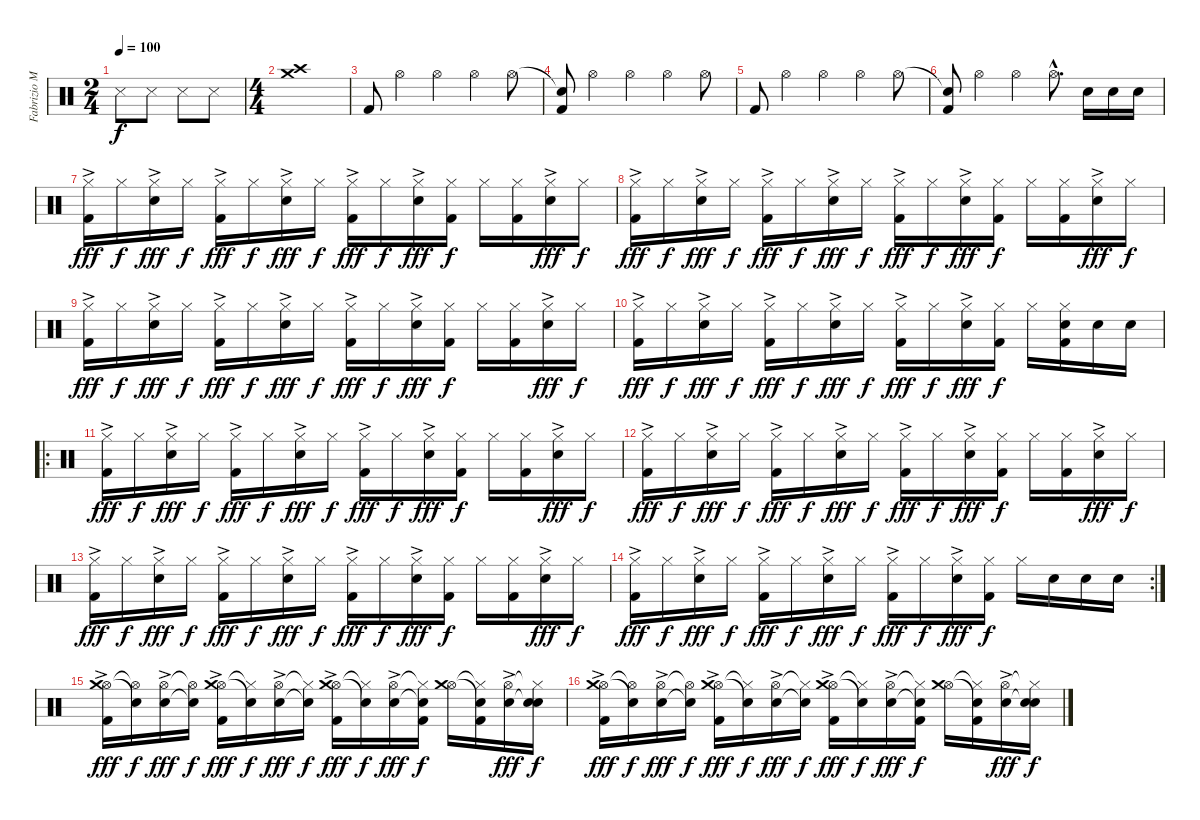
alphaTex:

\track ("Fabrizio Morreti (drums)" "Fabrizio M") {instrument percussion}
\staff {score}
\articulation defaults
\ts (2 4)
\tempo 100
\clef neutral
\ks c "Snare (side stick) 3".8{dy f} "Snare (side stick) 3".8 "Snare (side stick) 3".8 "Snare (side stick) 3".8
|
\ts (4 4)
("Crash medium (hit)" "Crash high (hit)").1 |
"Kick (hit) 2".8 "Hi-Hat (open)".4 "Hi-Hat (open)".4 "Hi-Hat (open)".4 "Hi-Hat (open)".8 |
("Snare (hit)"{t} "Kick (hit) 2").8 "Hi-Hat (open)".4 "Hi-Hat (open)".4 "Hi-Hat (open)".4 "Hi-Hat (open)".8 |
"Kick (hit) 2".8 "Hi-Hat (open)".4 "Hi-Hat (open)".4 "Hi-Hat (open)".4 "Hi-Hat (open)".8 |
("Snare (hit)"{t} "Kick (hit) 2").8 "Hi-Hat (open)".4 "Hi-Hat (open)".4 "Hi-Hat (open)"{hac}.8{d} "Electric Snare (hit)".16 "Electric Snare (hit)".16 "Electric Snare (hit)".16 |
("Hi-Hat (closed)" "Kick (hit) 2"{ac}).16{dy fff} "Hi-Hat (closed)".16{dy f} ("Hi-Hat (closed)" "Electric Snare (hit)"{ac}).16{dy fff} "Hi-Hat (closed)".16{dy f} ("Hi-Hat (closed)" "Kick (hit) 2"{ac}).16{dy fff} "Hi-Hat (closed)".16{dy f} ("Hi-Hat (closed)" "Electric Snare (hit)"{ac}).16{dy fff} "Hi-Hat (closed)".16{dy f} ("Hi-Hat (closed)" "Kick (hit) 2"{ac}).16{dy fff} "Hi-Hat (closed)".16{dy f} ("Hi-Hat (closed)" "Electric Snare (hit)"{ac}).16{dy fff} ("Hi-Hat (closed)" "Kick (hit) 2").16{dy f} "Hi-Hat (closed)".16 ("Hi-Hat (closed)" "Kick (hit) 2").16 ("Hi-Hat (closed)" "Electric Snare (hit)"{ac}).16{dy fff} "Hi-Hat (closed)".16{dy f} |
("Hi-Hat (closed)" "Kick (hit) 2"{ac}).16{dy fff} "Hi-Hat (closed)".16{dy f} ("Hi-Hat (closed)" "Electric Snare (hit)"{ac}).16{dy fff} "Hi-Hat (closed)".16{dy f} ("Hi-Hat (closed)" "Kick (hit) 2"{ac}).16{dy fff} "Hi-Hat (closed)".16{dy f} ("Hi-Hat (closed)" "Electric Snare (hit)"{ac}).16{dy fff} "Hi-Hat (closed)".16{dy f} ("Hi-Hat (closed)" "Kick (hit) 2"{ac}).16{dy fff} "Hi-Hat (closed)".16{dy f} ("Hi-Hat (closed)" "Electric Snare (hit)"{ac}).16{dy fff} ("Hi-Hat (closed)" "Kick (hit) 2").16{dy f} "Hi-Hat (closed)".16 ("Hi-Hat (closed)" "Kick (hit) 2").16 ("Hi-Hat (closed)" "Electric Snare (hit)"{ac}).16{dy fff} "Hi-Hat (closed)".16{dy f} |
("Hi-Hat (closed)" "Kick (hit) 2"{ac}).16{dy fff} "Hi-Hat (closed)".16{dy f} ("Hi-Hat (closed)" "Electric Snare (hit)"{ac}).16{dy fff} "Hi-Hat (closed)".16{dy f} ("Hi-Hat (closed)" "Kick (hit) 2"{ac}).16{dy fff} "Hi-Hat (closed)".16{dy f} ("Hi-Hat (closed)" "Electric Snare (hit)"{ac}).16{dy fff} "Hi-Hat (closed)".16{dy f} ("Hi-Hat (closed)" "Kick (hit) 2"{ac}).16{dy fff} "Hi-Hat (closed)".16{dy f} ("Hi-Hat (closed)" "Electric Snare (hit)"{ac}).16{dy fff} ("Hi-Hat (closed)" "Kick (hit) 2").16{dy f} "Hi-Hat (closed)".16 ("Hi-Hat (closed)" "Kick (hit) 2").16 ("Hi-Hat (closed)" "Electric Snare (hit)"{ac}).16{dy fff} "Hi-Hat (closed)".16{dy f} |
("Hi-Hat (closed)" "Kick (hit) 2"{ac}).16{dy fff} "Hi-Hat (closed)".16{dy f} ("Hi-Hat (closed)" "Electric Snare (hit)"{ac}).16{dy fff} "Hi-Hat (closed)".16{dy f} ("Hi-Hat (closed)" "Kick (hit) 2"{ac}).16{dy fff} "Hi-Hat (closed)".16{dy f} ("Hi-Hat (closed)" "Electric Snare (hit)"{ac}).16{dy fff} "Hi-Hat (closed)".16{dy f} ("Hi-Hat (closed)" "Kick (hit) 2"{ac}).16{dy fff} "Hi-Hat (closed)".16{dy f} ("Hi-Hat (closed)" "Electric Snare (hit)"{ac}).16{dy fff} ("Hi-Hat (closed)" "Kick (hit) 2").16{dy f} "Hi-Hat (closed)".16 ("Hi-Hat (closed)" "Electric Snare (hit)" "Kick (hit) 2").16 "Electric Snare (hit)".16 "Electric Snare (hit)".16 |
\ro
("Hi-Hat (closed)" "Kick (hit) 2"{ac}).16{dy fff} "Hi-Hat (closed)".16{dy f} ("Hi-Hat (closed)" "Electric Snare (hit)"{ac}).16{dy fff} "Hi-Hat (closed)".16{dy f} ("Hi-Hat (closed)" "Kick (hit) 2"{ac}).16{dy fff} "Hi-Hat (closed)".16{dy f} ("Hi-Hat (closed)" "Electric Snare (hit)"{ac}).16{dy fff} "Hi-Hat (closed)".16{dy f} ("Hi-Hat (closed)" "Kick (hit) 2"{ac}).16{dy fff} "Hi-Hat (closed)".16{dy f} ("Hi-Hat (closed)" "Electric Snare (hit)"{ac}).16{dy fff} ("Hi-Hat (closed)" "Kick (hit) 2").16{dy f} "Hi-Hat (closed)".16 ("Hi-Hat (closed)" "Kick (hit) 2").16 ("Hi-Hat (closed)" "Electric Snare (hit)"{ac}).16{dy fff} "Hi-Hat (closed)".16{dy f} |
("Hi-Hat (closed)" "Kick (hit) 2"{ac}).16{dy fff} "Hi-Hat (closed)".16{dy f} ("Hi-Hat (closed)" "Electric Snare (hit)"{ac}).16{dy fff} "Hi-Hat (closed)".16{dy f} ("Hi-Hat (closed)" "Kick (hit) 2"{ac}).16{dy fff} "Hi-Hat (closed)".16{dy f} ("Hi-Hat (closed)" "Electric Snare (hit)"{ac}).16{dy fff} "Hi-Hat (closed)".16{dy f} ("Hi-Hat (closed)" "Kick (hit) 2"{ac}).16{dy fff} "Hi-Hat (closed)".16{dy f} ("Hi-Hat (closed)" "Electric Snare (hit)"{ac}).16{dy fff} ("Hi-Hat (closed)" "Kick (hit) 2").16{dy f} "Hi-Hat (closed)".16 ("Hi-Hat (closed)" "Kick (hit) 2").16 ("Hi-Hat (closed)" "Electric Snare (hit)"{ac}).16{dy fff} "Hi-Hat (closed)".16{dy f} |
("Hi-Hat (closed)" "Kick (hit) 2"{ac}).16{dy fff} "Hi-Hat (closed)".16{dy f} ("Hi-Hat (closed)" "Electric Snare (hit)"{ac}).16{dy fff} "Hi-Hat (closed)".16{dy f} ("Hi-Hat (closed)" "Kick (hit) 2"{ac}).16{dy fff} "Hi-Hat (closed)".16{dy f} ("Hi-Hat (closed)" "Electric Snare (hit)"{ac}).16{dy fff} "Hi-Hat (closed)".16{dy f} ("Hi-Hat (closed)" "Kick (hit) 2"{ac}).16{dy fff} "Hi-Hat (closed)".16{dy f} ("Hi-Hat (closed)" "Electric Snare (hit)"{ac}).16{dy fff} ("Hi-Hat (closed)" "Kick (hit) 2").16{dy f} "Hi-Hat (closed)".16 ("Hi-Hat (closed)" "Kick (hit) 2").16 ("Hi-Hat (closed)" "Electric Snare (hit)"{ac}).16{dy fff} "Hi-Hat (closed)".16{dy f} |
\rc 2
("Hi-Hat (closed)" "Kick (hit) 2"{ac}).16{dy fff} "Hi-Hat (closed)".16{dy f} ("Hi-Hat (closed)" "Electric Snare (hit)"{ac}).16{dy fff} "Hi-Hat (closed)".16{dy f} ("Hi-Hat (closed)" "Kick (hit) 2"{ac}).16{dy fff} "Hi-Hat (closed)".16{dy f} ("Hi-Hat (closed)" "Electric Snare (hit)"{ac}).16{dy fff} "Hi-Hat (closed)".16{dy f} ("Hi-Hat (closed)" "Kick (hit) 2"{ac}).16{dy fff} "Hi-Hat (closed)".16{dy f} ("Hi-Hat (closed)" "Electric Snare (hit)"{ac}).16{dy fff} ("Hi-Hat (closed)" "Kick (hit) 2").16{dy f} "Hi-Hat (closed)".16 "Electric Snare (hit)".16 "Electric Snare (hit)".16 "Electric Snare (hit)".16 |
("Hi-Hat (open)" "Crash medium (hit)" "Kick (hit) 2"{ac}).16{dy fff} ("Hi-Hat (open)"{t} "Snare (hit)"{t}).16{dy f} ("Hi-Hat (open)" "Electric Snare (hit)"{ac}).16{dy fff} ("Hi-Hat (open)"{t} "Snare (hit)"{t}).16{dy f} ("Hi-Hat (open)" "Crash medium (hit)" "Kick (hit) 2"{ac}).16{dy fff} ("Hi-Hat (closed)"{t} "Snare (hit)"{t}).16{dy f} ("Hi-Hat (open)" "Electric Snare (hit)"{ac}).16{dy fff} ("Hi-Hat (closed)"{t} "Snare (hit)"{t}).16{dy f} ("Hi-Hat (open)" "Crash medium (hit)" "Kick (hit) 2"{ac}).16{dy fff} ("Hi-Hat (closed)"{t} "Snare (hit)"{t}).16{dy f} ("Hi-Hat (open)" "Electric Snare (hit)"{ac}).16{dy fff} ("Hi-Hat (closed)"{t} "Snare (hit)"{t} "Kick (hit) 2").16{dy f} ("Hi-Hat (open)" "Crash medium (hit)").16 ("Hi-Hat (closed)"{t} "Snare (hit)"{t} "Kick (hit) 2").16 ("Hi-Hat (open)" "Electric Snare (hit)"{ac}).16{dy fff} ("Hi-Hat (closed)"{t} "Snare (hit)"{t} "Electric Snare (hit)").16{dy f} |
("Hi-Hat (open)" "Crash medium (hit)" "Kick (hit) 2"{ac}).16{dy fff} ("Hi-Hat (open)"{t} "Snare (hit)"{t}).16{dy f} ("Hi-Hat (open)" "Electric Snare (hit)"{ac}).16{dy fff} ("Hi-Hat (open)"{t} "Snare (hit)"{t}).16{dy f} ("Hi-Hat (open)" "Crash medium (hit)" "Kick (hit) 2"{ac}).16{dy fff} ("Hi-Hat (closed)"{t} "Snare (hit)"{t}).16{dy f} ("Hi-Hat (open)" "Electric Snare (hit)"{ac}).16{dy fff} ("Hi-Hat (closed)"{t} "Snare (hit)"{t}).16{dy f} ("Hi-Hat (open)" "Crash medium (hit)" "Kick (hit) 2"{ac}).16{dy fff} ("Hi-Hat (closed)"{t} "Snare (hit)"{t}).16{dy f} ("Hi-Hat (open)" "Electric Snare (hit)"{ac}).16{dy fff} ("Hi-Hat (closed)"{t} "Snare (hit)"{t} "Kick (hit) 2").16{dy f} ("Hi-Hat (open)" "Crash medium (hit)").16 ("Hi-Hat (closed)"{t} "Snare (hit)"{t} "Kick (hit) 2").16 ("Hi-Hat (open)" "Electric Snare (hit)"{ac}).16{dy fff} ("Hi-Hat (closed)"{t} "Snare (hit)"{t} "Electric Snare (hit)").16{dy f}
